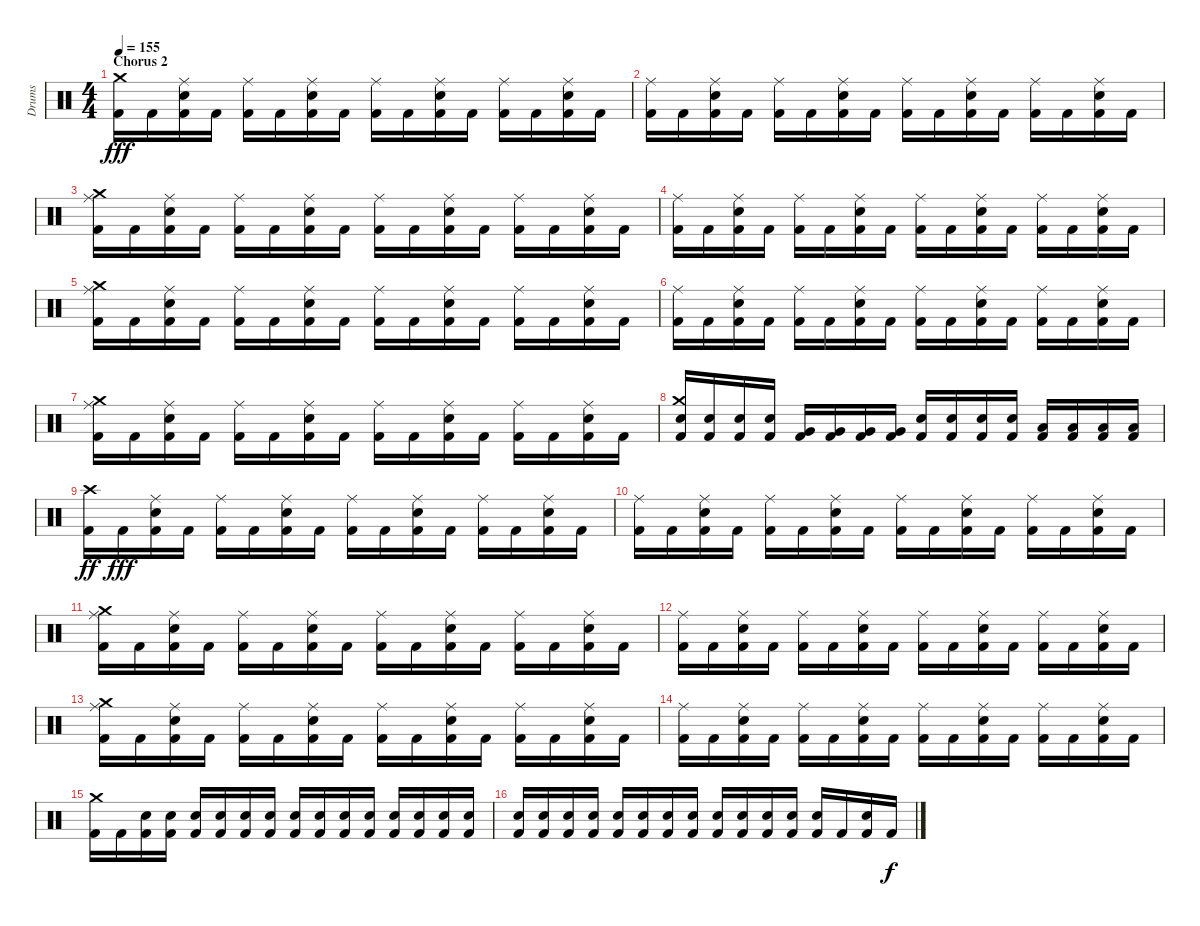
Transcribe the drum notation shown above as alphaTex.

\track ("Drums" "Drums") {instrument percussion}
\staff {score}
\articulation defaults
\ts (4 4)
\section ("" "Chorus 2")
\tempo 155
\clef neutral
\ks c
("Kick (hit) 2" "Crash medium (hit)").16{dy fff} "Kick (hit) 2".16 ("Kick (hit) 2" "Ride (middle)" "Snare (hit) 2").16 "Kick (hit) 2".16 ("Kick (hit) 2" "Ride (middle)").16 "Kick (hit) 2".16 ("Kick (hit) 2" "Ride (middle)" "Snare (hit) 2").16 "Kick (hit) 2".16 ("Kick (hit) 2" "Ride (middle)").16 "Kick (hit) 2".16 ("Kick (hit) 2" "Ride (middle)" "Snare (hit) 2").16 "Kick (hit) 2".16 ("Kick (hit) 2" "Ride (middle)").16 "Kick (hit) 2".16 ("Kick (hit) 2" "Ride (middle)" "Snare (hit) 2").16 "Kick (hit) 2".16 |
("Kick (hit) 2" "Ride (middle)").16 "Kick (hit) 2".16 ("Kick (hit) 2" "Ride (middle)" "Snare (hit) 2").16 "Kick (hit) 2".16 ("Kick (hit) 2" "Ride (middle)").16 "Kick (hit) 2".16 ("Kick (hit) 2" "Ride (middle)" "Snare (hit) 2").16 "Kick (hit) 2".16 ("Kick (hit) 2" "Ride (middle)").16 "Kick (hit) 2".16 ("Kick (hit) 2" "Ride (middle)" "Snare (hit) 2").16 "Kick (hit) 2".16 ("Kick (hit) 2" "Ride (middle)").16 "Kick (hit) 2".16 ("Kick (hit) 2" "Ride (middle)" "Snare (hit) 2").16 "Kick (hit) 2".16 |
("Kick (hit) 2" "Ride (middle)" "Crash medium (hit)").16 "Kick (hit) 2".16 ("Kick (hit) 2" "Ride (middle)" "Snare (hit) 2").16 "Kick (hit) 2".16 ("Kick (hit) 2" "Ride (middle)").16 "Kick (hit) 2".16 ("Kick (hit) 2" "Ride (middle)" "Snare (hit) 2").16 "Kick (hit) 2".16 ("Kick (hit) 2" "Ride (middle)").16 "Kick (hit) 2".16 ("Kick (hit) 2" "Ride (middle)" "Snare (hit) 2").16 "Kick (hit) 2".16 ("Kick (hit) 2" "Ride (middle)").16 "Kick (hit) 2".16 ("Kick (hit) 2" "Ride (middle)" "Snare (hit) 2").16 "Kick (hit) 2".16 |
("Kick (hit) 2" "Ride (middle)").16 "Kick (hit) 2".16 ("Kick (hit) 2" "Ride (middle)" "Snare (hit) 2").16 "Kick (hit) 2".16 ("Kick (hit) 2" "Ride (middle)").16 "Kick (hit) 2".16 ("Kick (hit) 2" "Ride (middle)" "Snare (hit) 2").16 "Kick (hit) 2".16 ("Kick (hit) 2" "Ride (middle)").16 "Kick (hit) 2".16 ("Kick (hit) 2" "Ride (middle)" "Snare (hit) 2").16 "Kick (hit) 2".16 ("Kick (hit) 2" "Ride (middle)").16 "Kick (hit) 2".16 ("Kick (hit) 2" "Ride (middle)" "Snare (hit) 2").16 "Kick (hit) 2".16 |
("Kick (hit) 2" "Ride (middle)" "Crash medium (hit)").16 "Kick (hit) 2".16 ("Kick (hit) 2" "Ride (middle)" "Snare (hit) 2").16 "Kick (hit) 2".16 ("Kick (hit) 2" "Ride (middle)").16 "Kick (hit) 2".16 ("Kick (hit) 2" "Ride (middle)" "Snare (hit) 2").16 "Kick (hit) 2".16 ("Kick (hit) 2" "Ride (middle)").16 "Kick (hit) 2".16 ("Kick (hit) 2" "Ride (middle)" "Snare (hit) 2").16 "Kick (hit) 2".16 ("Kick (hit) 2" "Ride (middle)").16 "Kick (hit) 2".16 ("Kick (hit) 2" "Ride (middle)" "Snare (hit) 2").16 "Kick (hit) 2".16 |
("Kick (hit) 2" "Ride (middle)").16 "Kick (hit) 2".16 ("Kick (hit) 2" "Ride (middle)" "Snare (hit) 2").16 "Kick (hit) 2".16 ("Kick (hit) 2" "Ride (middle)").16 "Kick (hit) 2".16 ("Kick (hit) 2" "Ride (middle)" "Snare (hit) 2").16 "Kick (hit) 2".16 ("Kick (hit) 2" "Ride (middle)").16 "Kick (hit) 2".16 ("Kick (hit) 2" "Ride (middle)" "Snare (hit) 2").16 "Kick (hit) 2".16 ("Kick (hit) 2" "Ride (middle)").16 "Kick (hit) 2".16 ("Kick (hit) 2" "Ride (middle)" "Snare (hit) 2").16 "Kick (hit) 2".16 |
("Kick (hit) 2" "Ride (middle)" "Crash medium (hit)").16 "Kick (hit) 2".16 ("Kick (hit) 2" "Ride (middle)" "Snare (hit) 2").16 "Kick (hit) 2".16 ("Kick (hit) 2" "Ride (middle)").16 "Kick (hit) 2".16 ("Kick (hit) 2" "Ride (middle)" "Snare (hit) 2").16 "Kick (hit) 2".16 ("Kick (hit) 2" "Ride (middle)").16 "Kick (hit) 2".16 ("Kick (hit) 2" "Ride (middle)" "Snare (hit) 2").16 "Kick (hit) 2".16 ("Kick (hit) 2" "Ride (middle)").16 "Kick (hit) 2".16 ("Kick (hit) 2" "Ride (middle)" "Snare (hit) 2").16 "Kick (hit) 2".16 |
("Kick (hit) 2" "Snare (hit) 2" "Crash medium (hit)").16 ("Kick (hit) 2" "Snare (hit) 2").16 ("Kick (hit) 2" "Snare (hit) 2").16 ("Kick (hit) 2" "Snare (hit) 2").16 ("Kick (hit) 2" "Very Low Tom (hit)").16 ("Kick (hit) 2" "Very Low Tom (hit)").16 ("Kick (hit) 2" "Very Low Tom (hit)").16 ("Kick (hit) 2" "Very Low Tom (hit)").16 ("Kick (hit) 2" "Snare (hit) 2").16 ("Kick (hit) 2" "Snare (hit) 2").16 ("Kick (hit) 2" "Snare (hit) 2").16 ("Kick (hit) 2" "Snare (hit) 2").16 ("Kick (hit) 2" "Low Floor Tom (hit)").16 ("Kick (hit) 2" "Low Floor Tom (hit)").16 ("Kick (hit) 2" "Low Floor Tom (hit)").16 ("Kick (hit) 2" "Low Floor Tom (hit)").16 |
("Kick (hit) 2" "Crash high (hit)").16{dy ff} "Kick (hit) 2".16{dy fff} ("Kick (hit) 2" "Ride (middle)" "Snare (hit) 2").16 "Kick (hit) 2".16 ("Kick (hit) 2" "Ride (middle)").16 "Kick (hit) 2".16 ("Kick (hit) 2" "Ride (middle)" "Snare (hit) 2").16 "Kick (hit) 2".16 ("Kick (hit) 2" "Ride (middle)").16 "Kick (hit) 2".16 ("Kick (hit) 2" "Ride (middle)" "Snare (hit) 2").16 "Kick (hit) 2".16 ("Kick (hit) 2" "Ride (middle)").16 "Kick (hit) 2".16 ("Kick (hit) 2" "Ride (middle)" "Snare (hit) 2").16 "Kick (hit) 2".16 |
("Kick (hit) 2" "Ride (middle)").16 "Kick (hit) 2".16 ("Kick (hit) 2" "Ride (middle)" "Snare (hit) 2").16 "Kick (hit) 2".16 ("Kick (hit) 2" "Ride (middle)").16 "Kick (hit) 2".16 ("Kick (hit) 2" "Ride (middle)" "Snare (hit) 2").16 "Kick (hit) 2".16 ("Kick (hit) 2" "Ride (middle)").16 "Kick (hit) 2".16 ("Kick (hit) 2" "Ride (middle)" "Snare (hit) 2").16 "Kick (hit) 2".16 ("Kick (hit) 2" "Ride (middle)").16 "Kick (hit) 2".16 ("Kick (hit) 2" "Ride (middle)" "Snare (hit) 2").16 "Kick (hit) 2".16 |
("Kick (hit) 2" "Ride (middle)" "Crash medium (hit)").16 "Kick (hit) 2".16 ("Kick (hit) 2" "Ride (middle)" "Snare (hit) 2").16 "Kick (hit) 2".16 ("Kick (hit) 2" "Ride (middle)").16 "Kick (hit) 2".16 ("Kick (hit) 2" "Ride (middle)" "Snare (hit) 2").16 "Kick (hit) 2".16 ("Kick (hit) 2" "Ride (middle)").16 "Kick (hit) 2".16 ("Kick (hit) 2" "Ride (middle)" "Snare (hit) 2").16 "Kick (hit) 2".16 ("Kick (hit) 2" "Ride (middle)").16 "Kick (hit) 2".16 ("Kick (hit) 2" "Ride (middle)" "Snare (hit) 2").16 "Kick (hit) 2".16 |
("Kick (hit) 2" "Ride (middle)").16 "Kick (hit) 2".16 ("Kick (hit) 2" "Ride (middle)" "Snare (hit) 2").16 "Kick (hit) 2".16 ("Kick (hit) 2" "Ride (middle)").16 "Kick (hit) 2".16 ("Kick (hit) 2" "Ride (middle)" "Snare (hit) 2").16 "Kick (hit) 2".16 ("Kick (hit) 2" "Ride (middle)").16 "Kick (hit) 2".16 ("Kick (hit) 2" "Ride (middle)" "Snare (hit) 2").16 "Kick (hit) 2".16 ("Kick (hit) 2" "Ride (middle)").16 "Kick (hit) 2".16 ("Kick (hit) 2" "Ride (middle)" "Snare (hit) 2").16 "Kick (hit) 2".16 |
("Kick (hit) 2" "Ride (middle)" "Crash medium (hit)").16 "Kick (hit) 2".16 ("Kick (hit) 2" "Ride (middle)" "Snare (hit) 2").16 "Kick (hit) 2".16 ("Kick (hit) 2" "Ride (middle)").16 "Kick (hit) 2".16 ("Kick (hit) 2" "Ride (middle)" "Snare (hit) 2").16 "Kick (hit) 2".16 ("Kick (hit) 2" "Ride (middle)").16 "Kick (hit) 2".16 ("Kick (hit) 2" "Ride (middle)" "Snare (hit) 2").16 "Kick (hit) 2".16 ("Kick (hit) 2" "Ride (middle)").16 "Kick (hit) 2".16 ("Kick (hit) 2" "Ride (middle)" "Snare (hit) 2").16 "Kick (hit) 2".16 |
("Kick (hit) 2" "Ride (middle)").16 "Kick (hit) 2".16 ("Kick (hit) 2" "Ride (middle)" "Snare (hit) 2").16 "Kick (hit) 2".16 ("Kick (hit) 2" "Ride (middle)").16 "Kick (hit) 2".16 ("Kick (hit) 2" "Ride (middle)" "Snare (hit) 2").16 "Kick (hit) 2".16 ("Kick (hit) 2" "Ride (middle)").16 "Kick (hit) 2".16 ("Kick (hit) 2" "Ride (middle)" "Snare (hit) 2").16 "Kick (hit) 2".16 ("Kick (hit) 2" "Ride (middle)").16 "Kick (hit) 2".16 ("Kick (hit) 2" "Ride (middle)" "Snare (hit) 2").16 "Kick (hit) 2".16 |
("Kick (hit) 2" "Crash medium (hit)").16 "Kick (hit) 2".16 ("Kick (hit) 2" "Snare (hit) 2").16 ("Kick (hit) 2" "Snare (hit) 2").16 ("Kick (hit) 2" "Snare (hit) 2").16 ("Kick (hit) 2" "Snare (hit) 2").16 ("Kick (hit) 2" "Snare (hit) 2").16 ("Kick (hit) 2" "Snare (hit) 2").16 ("Kick (hit) 2" "Snare (hit) 2").16 ("Kick (hit) 2" "Snare (hit) 2").16 ("Kick (hit) 2" "Snare (hit) 2").16 ("Kick (hit) 2" "Snare (hit) 2").16 ("Kick (hit) 2" "Snare (hit) 2").16 ("Kick (hit) 2" "Snare (hit) 2").16 ("Kick (hit) 2" "Snare (hit) 2").16 ("Kick (hit) 2" "Snare (hit) 2").16 |
("Kick (hit) 2" "Snare (hit) 2").16 ("Kick (hit) 2" "Snare (hit) 2").16 ("Kick (hit) 2" "Snare (hit) 2").16 ("Kick (hit) 2" "Snare (hit) 2").16 ("Kick (hit) 2" "Snare (hit) 2").16 ("Kick (hit) 2" "Snare (hit) 2").16 ("Kick (hit) 2" "Snare (hit) 2").16 ("Kick (hit) 2" "Snare (hit) 2").16 ("Kick (hit) 2" "Snare (hit) 2").16 ("Kick (hit) 2" "Snare (hit) 2").16 ("Kick (hit) 2" "Snare (hit) 2").16 ("Kick (hit) 2" "Snare (hit) 2").16 ("Kick (hit) 2" "Snare (hit) 2").16 "Kick (hit) 2".16 ("Kick (hit) 2" "Snare (hit) 2").16 "Kick (hit) 2".16{dy f}
